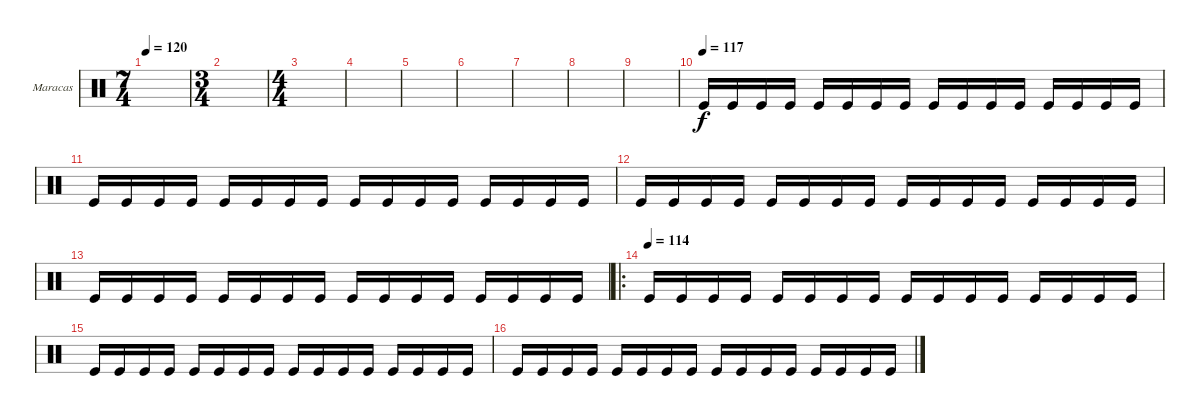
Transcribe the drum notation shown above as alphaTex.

\defaultSystemsLayout 4
\bracketExtendMode groupsimilarinstruments
\firstSystemTrackNameOrientation horizontal
\otherSystemsTrackNameOrientation horizontal
\track ("Maracas" "Maracas") {instrument percussion}
\staff {score}
\articulation defaults
\ts (7 4)
\tempo 120
\clef neutral
\scale
0.333333
\ks c
|
\ts (3 4)
\scale
0.333333 |
\ts (4 4)
\scale
0.333333 |
\scale
0.333333 |
\scale
0.333333 |
\scale
0.333333 |
\scale
0.333333 |
\scale
0.333333 |
\scale
0.333333 |
\tempo 117
\scale
0.333333 "Kick (hit)".16 "Kick (hit)".16 "Kick (hit)".16 "Kick (hit)".16 "Kick (hit)".16 "Kick (hit)".16 "Kick (hit)".16 "Kick (hit)".16 "Kick (hit)".16 "Kick (hit)".16 "Kick (hit)".16 "Kick (hit)".16 "Kick (hit)".16 "Kick (hit)".16 "Kick (hit)".16 "Kick (hit)".16 |
\scale
0.333333 "Kick (hit)".16 "Kick (hit)".16 "Kick (hit)".16 "Kick (hit)".16 "Kick (hit)".16 "Kick (hit)".16 "Kick (hit)".16 "Kick (hit)".16 "Kick (hit)".16 "Kick (hit)".16 "Kick (hit)".16 "Kick (hit)".16 "Kick (hit)".16 "Kick (hit)".16 "Kick (hit)".16 "Kick (hit)".16 |
\scale
0.333333 "Kick (hit)".16 "Kick (hit)".16 "Kick (hit)".16 "Kick (hit)".16 "Kick (hit)".16 "Kick (hit)".16 "Kick (hit)".16 "Kick (hit)".16 "Kick (hit)".16 "Kick (hit)".16 "Kick (hit)".16 "Kick (hit)".16 "Kick (hit)".16 "Kick (hit)".16 "Kick (hit)".16 "Kick (hit)".16 |
\scale
0.311475 "Kick (hit)".16 "Kick (hit)".16 "Kick (hit)".16 "Kick (hit)".16 "Kick (hit)".16 "Kick (hit)".16 "Kick (hit)".16 "Kick (hit)".16 "Kick (hit)".16 "Kick (hit)".16 "Kick (hit)".16 "Kick (hit)".16 "Kick (hit)".16 "Kick (hit)".16 "Kick (hit)".16 "Kick (hit)".16 |
\ro
\tempo 114
\scale
0.377049 "Kick (hit)".16 "Kick (hit)".16 "Kick (hit)".16 "Kick (hit)".16 "Kick (hit)".16 "Kick (hit)".16 "Kick (hit)".16 "Kick (hit)".16 "Kick (hit)".16 "Kick (hit)".16 "Kick (hit)".16 "Kick (hit)".16 "Kick (hit)".16 "Kick (hit)".16 "Kick (hit)".16 "Kick (hit)".16 |
\scale
0.311475 "Kick (hit)".16 "Kick (hit)".16 "Kick (hit)".16 "Kick (hit)".16 "Kick (hit)".16 "Kick (hit)".16 "Kick (hit)".16 "Kick (hit)".16 "Kick (hit)".16 "Kick (hit)".16 "Kick (hit)".16 "Kick (hit)".16 "Kick (hit)".16 "Kick (hit)".16 "Kick (hit)".16 "Kick (hit)".16 |
"Kick (hit)".16 "Kick (hit)".16 "Kick (hit)".16 "Kick (hit)".16 "Kick (hit)".16 "Kick (hit)".16 "Kick (hit)".16 "Kick (hit)".16 "Kick (hit)".16 "Kick (hit)".16 "Kick (hit)".16 "Kick (hit)".16 "Kick (hit)".16 "Kick (hit)".16 "Kick (hit)".16 "Kick (hit)".16
